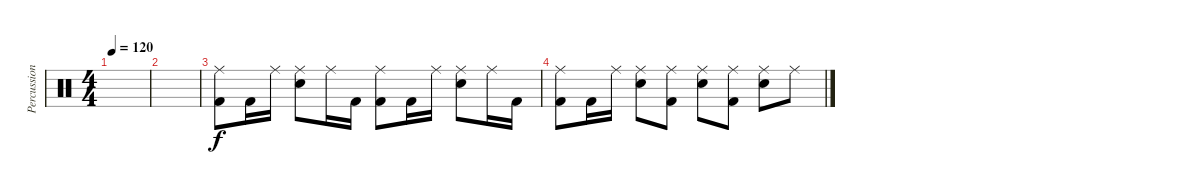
\track ("Percussions" "Percussion") {instrument percussion}
\staff {score}
\articulation defaults
\ts (4 4)
\tempo 120
\clef neutral
\ks c
|
|
("Ride (middle)" "Kick (hit) 2").8 "Kick (hit) 2".16 "Ride (middle)".16 ("Ride (middle)" "Electric Snare (hit)").8 "Ride (middle)".16 "Kick (hit) 2".16 ("Ride (middle)" "Kick (hit) 2").8 "Kick (hit) 2".16 "Ride (middle)".16 ("Ride (middle)" "Electric Snare (hit)").8 "Ride (middle)".16 "Kick (hit) 2".16 |
("Ride (middle)" "Kick (hit) 2").8 "Kick (hit) 2".16 "Ride (middle)".16 ("Ride (middle)" "Electric Snare (hit)").8 ("Ride (middle)" "Kick (hit) 2").8 ("Ride (middle)" "Electric Snare (hit)").8 ("Ride (middle)" "Kick (hit) 2").8 ("Ride (middle)" "Electric Snare (hit)").8 "Ride (middle)".8
